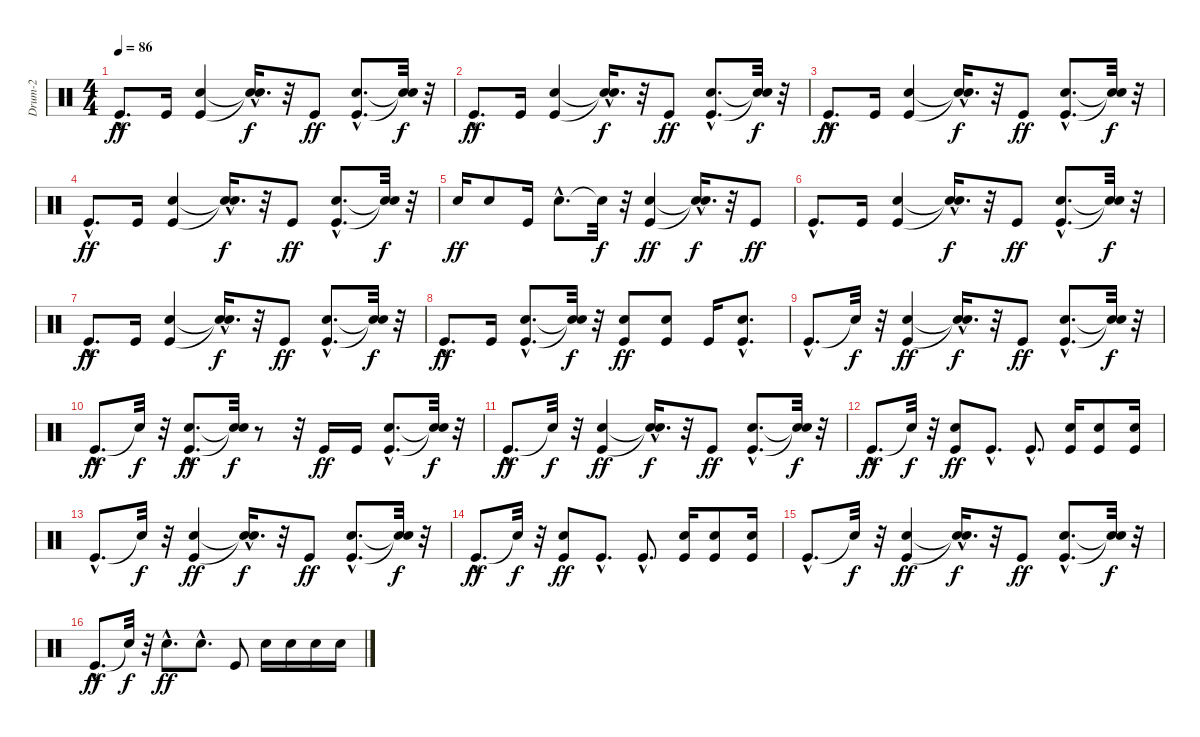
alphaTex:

\track ("Drum-2" "Drum-2") {instrument percussion}
\staff {score}
\articulation defaults
\ts (4 4)
\tempo 86
\clef neutral
\ks c "Kick (hit)"{hac}.8{d dy ff} "Kick (hit)".16
("Kick (hit)" "Electric Snare (hit)").4 ("Snare (hit)"{hac t} "Snare (hit)"{hac t}).16{d dy f} r.32 "Kick (hit)".8{dy ff} ("Kick (hit)"{hac} "Electric Snare (hit)"{hac}).8{d} ("Snare (hit)"{t} "Snare (hit)"{t}).32{dy f} r.32 |
"Kick (hit)"{hac}.8{d dy ff} "Kick (hit)".16 ("Kick (hit)" "Electric Snare (hit)").4 ("Snare (hit)"{hac t} "Snare (hit)"{hac t}).16{d dy f} r.32 "Kick (hit)".8{dy ff} ("Kick (hit)"{hac} "Electric Snare (hit)"{hac}).8{d} ("Snare (hit)"{t} "Snare (hit)"{t}).32{dy f} r.32 |
"Kick (hit)"{hac}.8{d dy ff} "Kick (hit)".16 ("Kick (hit)" "Electric Snare (hit)").4 ("Snare (hit)"{hac t} "Snare (hit)"{hac t}).16{d dy f} r.32 "Kick (hit)".8{dy ff} ("Kick (hit)"{hac} "Electric Snare (hit)"{hac}).8{d} ("Snare (hit)"{t} "Snare (hit)"{t}).32{dy f} r.32 |
"Kick (hit)"{hac}.8{d dy ff} "Kick (hit)".16 ("Kick (hit)" "Electric Snare (hit)").4 ("Snare (hit)"{hac t} "Snare (hit)"{hac t}).16{d dy f} r.32 "Kick (hit)".8{dy ff} ("Kick (hit)"{hac} "Electric Snare (hit)"{hac}).8{d} ("Snare (hit)"{t} "Snare (hit)"{t}).32{dy f} r.32 |
"Electric Snare (hit)".16{dy ff} "Electric Snare (hit)".8 "Kick (hit)".16 "Electric Snare (hit)"{hac}.8{d} "Snare (hit)"{t}.32{dy f} r.32 ("Kick (hit)" "Electric Snare (hit)").4{dy ff} ("Snare (hit)"{hac t} "Snare (hit)"{hac t}).16{d dy f} r.32 "Kick (hit)".8{dy ff} |
"Kick (hit)"{hac}.8{d} "Kick (hit)".16 ("Kick (hit)" "Electric Snare (hit)").4 ("Snare (hit)"{hac t} "Snare (hit)"{hac t}).16{d dy f} r.32 "Kick (hit)".8{dy ff} ("Kick (hit)"{hac} "Electric Snare (hit)"{hac}).8{d} ("Snare (hit)"{t} "Snare (hit)"{t}).32{dy f} r.32 |
"Kick (hit)"{hac}.8{d dy ff} "Kick (hit)".16 ("Kick (hit)" "Electric Snare (hit)").4 ("Snare (hit)"{hac t} "Snare (hit)"{hac t}).16{d dy f} r.32 "Kick (hit)".8{dy ff} ("Kick (hit)"{hac} "Electric Snare (hit)"{hac}).8{d} ("Snare (hit)"{t} "Snare (hit)"{t}).32{dy f} r.32 |
"Kick (hit)"{hac}.8{d dy ff} "Kick (hit)".16 ("Kick (hit)"{hac} "Electric Snare (hit)"{hac}).8{d} ("Snare (hit)"{t} "Snare (hit)"{t}).32{dy f} r.32 ("Kick (hit)" "Electric Snare (hit)").8{dy ff} ("Kick (hit)" "Electric Snare (hit)").8 "Kick (hit)".16 ("Kick (hit)"{hac} "Electric Snare (hit)"{hac}).8{d} |
"Kick (hit)"{hac}.8{d} "Snare (hit)"{t}.32{dy f} r.32 ("Kick (hit)" "Electric Snare (hit)").4{dy ff} ("Snare (hit)"{hac t} "Snare (hit)"{hac t}).16{d dy f} r.32 "Kick (hit)".8{dy ff} ("Kick (hit)"{hac} "Electric Snare (hit)"{hac}).8{d} ("Snare (hit)"{t} "Snare (hit)"{t}).32{dy f} r.32 |
"Kick (hit)"{hac}.8{d dy ff} "Snare (hit)"{t}.32{dy f} r.32 ("Kick (hit)"{hac} "Electric Snare (hit)"{hac}).8{d dy ff} ("Snare (hit)"{t} "Snare (hit)"{t}).32{dy f} r.8 r.32 "Kick (hit)".16{dy ff} "Kick (hit)".16 ("Kick (hit)"{hac} "Electric Snare (hit)"{hac}).8{d} ("Snare (hit)"{t} "Snare (hit)"{t}).32{dy f} r.32 |
"Kick (hit)"{hac}.8{d dy ff} "Snare (hit)"{t}.32{dy f} r.32 ("Kick (hit)" "Electric Snare (hit)").4{dy ff} ("Snare (hit)"{hac t} "Snare (hit)"{hac t}).16{d dy f} r.32 "Kick (hit)".8{dy ff} ("Kick (hit)"{hac} "Electric Snare (hit)"{hac}).8{d} ("Snare (hit)"{t} "Snare (hit)"{t}).32{dy f} r.32 |
"Kick (hit)"{hac}.8{d dy ff} "Snare (hit)"{t}.32{dy f} r.32 ("Kick (hit)" "Electric Snare (hit)").8{dy ff} "Kick (hit)"{hac}.8{d} "Kick (hit)"{hac}.8{d} ("Kick (hit)" "Electric Snare (hit)").16 ("Kick (hit)" "Electric Snare (hit)").8 ("Kick (hit)" "Electric Snare (hit)").16 |
"Kick (hit)"{hac}.8{d} "Snare (hit)"{t}.32{dy f} r.32 ("Kick (hit)" "Electric Snare (hit)").4{dy ff} ("Snare (hit)"{hac t} "Snare (hit)"{hac t}).16{d dy f} r.32 "Kick (hit)".8{dy ff} ("Kick (hit)"{hac} "Electric Snare (hit)"{hac}).8{d} ("Snare (hit)"{t} "Snare (hit)"{t}).32{dy f} r.32 |
"Kick (hit)"{hac}.8{d dy ff} "Snare (hit)"{t}.32{dy f} r.32 ("Kick (hit)" "Electric Snare (hit)").8{dy ff} "Kick (hit)"{hac}.8{d} "Kick (hit)"{hac}.8{d} ("Kick (hit)" "Electric Snare (hit)").16 ("Kick (hit)" "Electric Snare (hit)").8 ("Kick (hit)" "Electric Snare (hit)").16 |
"Kick (hit)"{hac}.8{d} "Snare (hit)"{t}.32{dy f} r.32 ("Kick (hit)" "Electric Snare (hit)").4{dy ff} ("Snare (hit)"{hac t} "Snare (hit)"{hac t}).16{d dy f} r.32 "Kick (hit)".8{dy ff} ("Kick (hit)"{hac} "Electric Snare (hit)"{hac}).8{d} ("Snare (hit)"{t} "Snare (hit)"{t}).32{dy f} r.32 |
"Kick (hit)"{hac}.8{d dy ff} "Snare (hit)"{t}.32{dy f} r.32 "Electric Snare (hit)"{hac}.8{d dy ff} "Electric Snare (hit)"{hac}.8{d} "Kick (hit)".8 "Electric Snare (hit)".16 "Electric Snare (hit)".16 "Snare (hit) 2".16 "Snare (hit) 2".16
